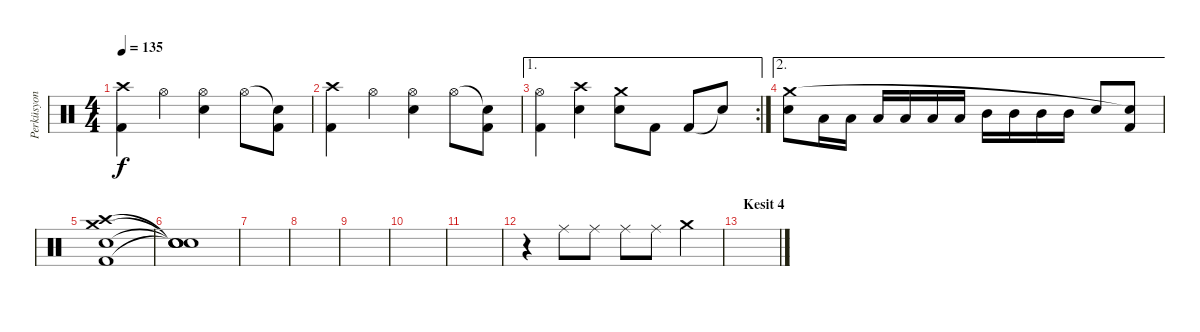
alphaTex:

\track ("Perküsyon" "Perküsyon") {instrument percussion}
\staff {score}
\articulation defaults
\ts (4 4)
\tempo 135
\clef neutral
\ks c
("Crash high (hit)" "Kick (hit) 2").4{dy f} "Hi-Hat (open)".4 ("Hi-Hat (open)" "Snare (hit) 2").4 "Hi-Hat (open)".8 ("Snare (hit)"{t} "Kick (hit) 2").8 |
("Crash high (hit)" "Kick (hit) 2").4 "Hi-Hat (open)".4 ("Hi-Hat (open)" "Snare (hit) 2").4 "Hi-Hat (open)".8 ("Snare (hit)"{t} "Kick (hit) 2").8 |
\ae 1
\rc 2
("Kick (hit) 2" "Hi-Hat (open)").4 ("Snare (hit) 2" "Crash high (hit)").4 ("Snare (hit) 2" "Crash medium (hit)").8 "Kick (hit) 2".8 "Kick (hit) 2".8 "Snare (hit)"{t}.8 |
\ae 2
("Snare (hit) 2" "Crash medium (hit)").8 "Low Tom (hit)".16 "Low Tom (hit)".16 "Low Tom (hit)".16 "Low Tom (hit)".16 "Low Tom (hit)".16 "Low Tom (hit)".16 "Mid Tom (hit)".16 "Mid Tom (hit)".16 "Mid Tom (hit)".16 "Mid Tom (hit)".16 "Snare (hit) 2".8 ("Kick (hit) 2" "Snare (hit)"{t}).8 |
("Crash medium (hit)" "Crash high (hit)" "Snare (hit) 2" "Kick (hit) 2").1 |
("Snare (hit)"{t} "Snare (hit)"{t} "Snare (hit)"{t} "Snare (hit)"{t}).1 |
|
|
|
|
|
r.4 "Ride (middle)".8 "Ride (middle)".8 "Ride (middle)".8 "Ride (middle)".8 "Crash medium (hit)".4 |
\section ("" "Kesit 4")
